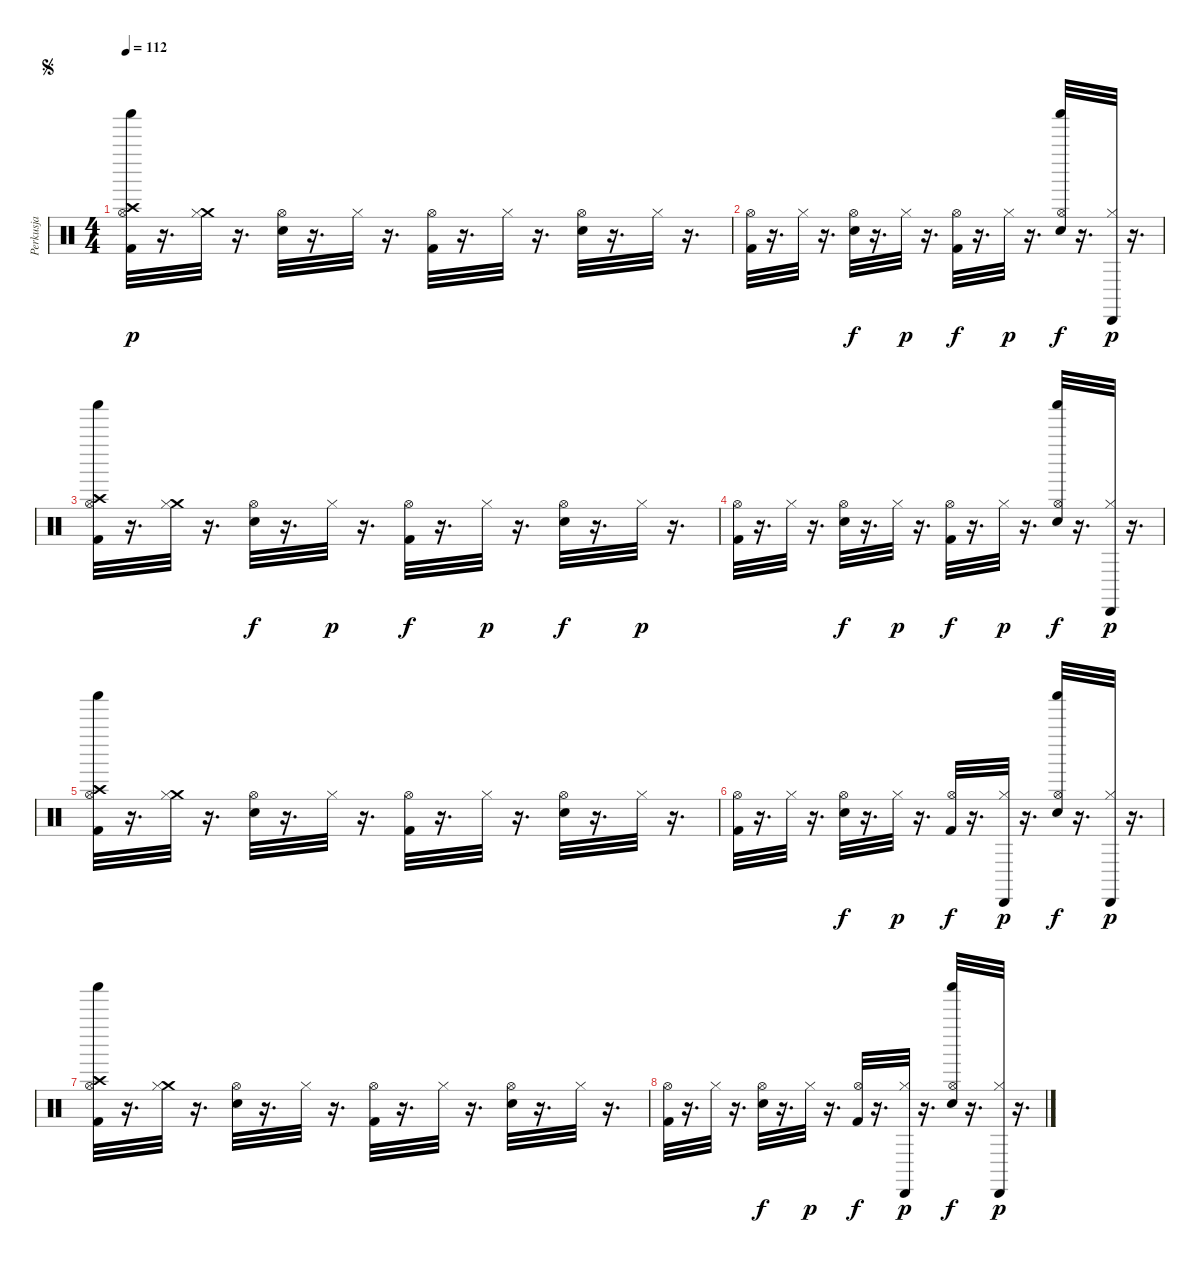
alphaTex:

\track ("Perkusja" "Perkusja") {instrument percussion}
\staff {score}
\articulation defaults
\ts (4 4)
\jump segno
\tempo 112
\clef neutral
\ks c
("Crash high (hit)" "Hi-Hat (open)" "Shaker (hit)" "Kick (hit) 2").32{dy p} r.16{d} ("Crash medium (hit)" "Hi-Hat (closed)").32 r.16{d} ("Hi-Hat (open)" "Snare (hit) 2").32 r.16{d} "Hi-Hat (closed)".32 r.16{d} ("Hi-Hat (open)" "Kick (hit) 2").32 r.16{d} "Hi-Hat (closed)".32 r.16{d} ("Hi-Hat (open)" "Snare (hit) 2").32 r.16{d} "Hi-Hat (closed)".32 r.16{d} |
("Hi-Hat (open)" "Kick (hit) 2").32 r.16{d} "Hi-Hat (closed)".32 r.16{d} ("Hi-Hat (open)" "Snare (hit) 2").32{dy f} r.16{d} "Hi-Hat (closed)".32{dy p} r.16{d} ("Hi-Hat (open)" "Kick (hit) 2").32{dy f} r.16{d} "Hi-Hat (closed)".32{dy p} r.16{d} ("Shaker (hit)" "Hi-Hat (open)" "Snare (hit) 2").32{dy f} r.16{d} ("Hi-Hat (closed)" "Cabasa (hit)").32{dy p} r.16{d} |
("Crash high (hit)" "Hi-Hat (open)" "Shaker (hit)" "Kick (hit) 2").32 r.16{d} ("Crash medium (hit)" "Hi-Hat (closed)").32 r.16{d} ("Hi-Hat (open)" "Snare (hit) 2").32{dy f} r.16{d} "Hi-Hat (closed)".32{dy p} r.16{d} ("Hi-Hat (open)" "Kick (hit) 2").32{dy f} r.16{d} "Hi-Hat (closed)".32{dy p} r.16{d} ("Hi-Hat (open)" "Snare (hit) 2").32{dy f} r.16{d} "Hi-Hat (closed)".32{dy p} r.16{d} |
("Hi-Hat (open)" "Kick (hit) 2").32 r.16{d} "Hi-Hat (closed)".32 r.16{d} ("Hi-Hat (open)" "Snare (hit) 2").32{dy f} r.16{d} "Hi-Hat (closed)".32{dy p} r.16{d} ("Hi-Hat (open)" "Kick (hit) 2").32{dy f} r.16{d} "Hi-Hat (closed)".32{dy p} r.16{d} ("Shaker (hit)" "Hi-Hat (open)" "Snare (hit) 2").32{dy f} r.16{d} ("Hi-Hat (closed)" "Cabasa (hit)").32{dy p} r.16{d} |
("Crash high (hit)" "Hi-Hat (open)" "Shaker (hit)" "Kick (hit) 2").32 r.16{d} ("Crash medium (hit)" "Hi-Hat (closed)").32 r.16{d} ("Hi-Hat (open)" "Snare (hit) 2").32 r.16{d} "Hi-Hat (closed)".32 r.16{d} ("Hi-Hat (open)" "Kick (hit) 2").32 r.16{d} "Hi-Hat (closed)".32 r.16{d} ("Hi-Hat (open)" "Snare (hit) 2").32 r.16{d} "Hi-Hat (closed)".32 r.16{d} |
("Hi-Hat (open)" "Kick (hit) 2").32 r.16{d} "Hi-Hat (closed)".32 r.16{d} ("Hi-Hat (open)" "Snare (hit) 2").32{dy f} r.16{d} "Hi-Hat (closed)".32{dy p} r.16{d} ("Hi-Hat (open)" "Kick (hit) 2").32{dy f} r.16{d} ("Hi-Hat (closed)" "Cabasa (hit)").32{dy p} r.16{d} ("Shaker (hit)" "Hi-Hat (open)" "Snare (hit) 2").32{dy f} r.16{d} ("Hi-Hat (closed)" "Cabasa (hit)").32{dy p} r.16{d} |
("Crash high (hit)" "Hi-Hat (open)" "Shaker (hit)" "Kick (hit) 2").32 r.16{d} ("Crash medium (hit)" "Hi-Hat (closed)").32 r.16{d} ("Hi-Hat (open)" "Snare (hit) 2").32 r.16{d} "Hi-Hat (closed)".32 r.16{d} ("Hi-Hat (open)" "Kick (hit) 2").32 r.16{d} "Hi-Hat (closed)".32 r.16{d} ("Hi-Hat (open)" "Snare (hit) 2").32 r.16{d} "Hi-Hat (closed)".32 r.16{d} |
("Hi-Hat (open)" "Kick (hit) 2").32 r.16{d} "Hi-Hat (closed)".32 r.16{d} ("Hi-Hat (open)" "Snare (hit) 2").32{dy f} r.16{d} "Hi-Hat (closed)".32{dy p} r.16{d} ("Hi-Hat (open)" "Kick (hit) 2").32{dy f} r.16{d} ("Hi-Hat (closed)" "Cabasa (hit)").32{dy p} r.16{d} ("Shaker (hit)" "Hi-Hat (open)" "Snare (hit) 2").32{dy f} r.16{d} ("Hi-Hat (closed)" "Cabasa (hit)").32{dy p} r.16{d}
